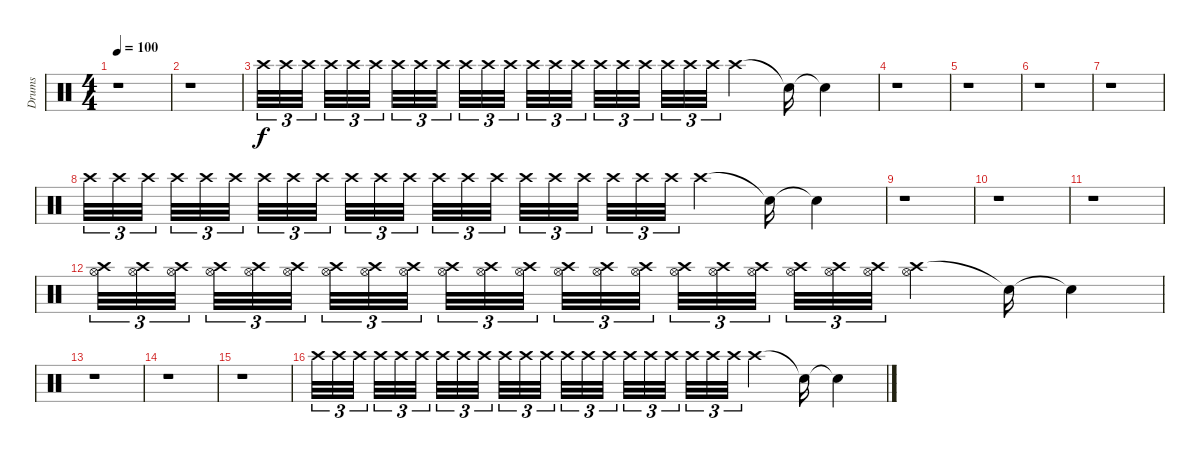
\track ("Drums" "Drums") {instrument percussion}
\staff {score}
\articulation defaults
\ts (4 4)
\tempo 100
\clef neutral
\ks c
r.1{dy f} |
r.1 |
"Crash high (hit)".32{tu (3 2) volume 1} "Crash high (hit)".32{tu (3 2) volume 16} "Crash high (hit)".32{tu (3 2)} "Crash high (hit)".32{tu (3 2)} "Crash high (hit)".32{tu (3 2)} "Crash high (hit)".32{tu (3 2)} "Crash high (hit)".32{tu (3 2)} "Crash high (hit)".32{tu (3 2)} "Crash high (hit)".32{tu (3 2)} "Crash high (hit)".32{tu (3 2)} "Crash high (hit)".32{tu (3 2)} "Crash high (hit)".32{tu (3 2)} "Crash high (hit)".32{tu (3 2)} "Crash high (hit)".32{tu (3 2)} "Crash high (hit)".32{tu (3 2)} "Crash high (hit)".32{tu (3 2)} "Crash high (hit)".32{tu (3 2)} "Crash high (hit)".32{tu (3 2)} "Crash high (hit)".32{tu (3 2)} "Crash high (hit)".32{tu (3 2)} "Crash high (hit)".32{tu (3 2)} "Crash high (hit)".4 "Snare (hit)"{t}.16 "Snare (hit)"{t}.4 |
r.1 |
r.1 |
r.1 |
r.1 |
"Crash high (hit)".32{tu (3 2) volume 1} "Crash high (hit)".32{tu (3 2) volume 16} "Crash high (hit)".32{tu (3 2)} "Crash high (hit)".32{tu (3 2)} "Crash high (hit)".32{tu (3 2)} "Crash high (hit)".32{tu (3 2)} "Crash high (hit)".32{tu (3 2)} "Crash high (hit)".32{tu (3 2)} "Crash high (hit)".32{tu (3 2)} "Crash high (hit)".32{tu (3 2)} "Crash high (hit)".32{tu (3 2)} "Crash high (hit)".32{tu (3 2)} "Crash high (hit)".32{tu (3 2)} "Crash high (hit)".32{tu (3 2)} "Crash high (hit)".32{tu (3 2)} "Crash high (hit)".32{tu (3 2)} "Crash high (hit)".32{tu (3 2)} "Crash high (hit)".32{tu (3 2)} "Crash high (hit)".32{tu (3 2)} "Crash high (hit)".32{tu (3 2)} "Crash high (hit)".32{tu (3 2)} "Crash high (hit)".4 "Snare (hit)"{t}.16 "Snare (hit)"{t}.4 |
r.1 |
r.1 |
r.1 |
("Crash high (hit)" "Hi-Hat (open)").32{tu (3 2) volume 1} ("Crash high (hit)" "Hi-Hat (open)").32{tu (3 2) volume 16} ("Crash high (hit)" "Hi-Hat (open)").32{tu (3 2)} ("Crash high (hit)" "Hi-Hat (open)").32{tu (3 2)} ("Crash high (hit)" "Hi-Hat (open)").32{tu (3 2)} ("Crash high (hit)" "Hi-Hat (open)").32{tu (3 2)} ("Crash high (hit)" "Hi-Hat (open)").32{tu (3 2)} ("Crash high (hit)" "Hi-Hat (open)").32{tu (3 2)} ("Crash high (hit)" "Hi-Hat (open)").32{tu (3 2)} ("Crash high (hit)" "Hi-Hat (open)").32{tu (3 2)} ("Crash high (hit)" "Hi-Hat (open)").32{tu (3 2)} ("Crash high (hit)" "Hi-Hat (open)").32{tu (3 2)} ("Crash high (hit)" "Hi-Hat (open)").32{tu (3 2)} ("Crash high (hit)" "Hi-Hat (open)").32{tu (3 2)} ("Crash high (hit)" "Hi-Hat (open)").32{tu (3 2)} ("Crash high (hit)" "Hi-Hat (open)").32{tu (3 2)} ("Crash high (hit)" "Hi-Hat (open)").32{tu (3 2)} ("Crash high (hit)" "Hi-Hat (open)").32{tu (3 2)} ("Crash high (hit)" "Hi-Hat (open)").32{tu (3 2)} ("Crash high (hit)" "Hi-Hat (open)").32{tu (3 2)} ("Crash high (hit)" "Hi-Hat (open)").32{tu (3 2)} ("Crash high (hit)" "Hi-Hat (open)").4 "Snare (hit)"{t}.16 "Snare (hit)"{t}.4 |
r.1 |
r.1 |
r.1 |
"Crash high (hit)".32{tu (3 2) volume 1} "Crash high (hit)".32{tu (3 2) volume 16} "Crash high (hit)".32{tu (3 2)} "Crash high (hit)".32{tu (3 2)} "Crash high (hit)".32{tu (3 2)} "Crash high (hit)".32{tu (3 2)} "Crash high (hit)".32{tu (3 2)} "Crash high (hit)".32{tu (3 2)} "Crash high (hit)".32{tu (3 2)} "Crash high (hit)".32{tu (3 2)} "Crash high (hit)".32{tu (3 2)} "Crash high (hit)".32{tu (3 2)} "Crash high (hit)".32{tu (3 2)} "Crash high (hit)".32{tu (3 2)} "Crash high (hit)".32{tu (3 2)} "Crash high (hit)".32{tu (3 2)} "Crash high (hit)".32{tu (3 2)} "Crash high (hit)".32{tu (3 2)} "Crash high (hit)".32{tu (3 2)} "Crash high (hit)".32{tu (3 2)} "Crash high (hit)".32{tu (3 2)} "Crash high (hit)".4 "Snare (hit)"{t}.16 "Snare (hit)"{t}.4
